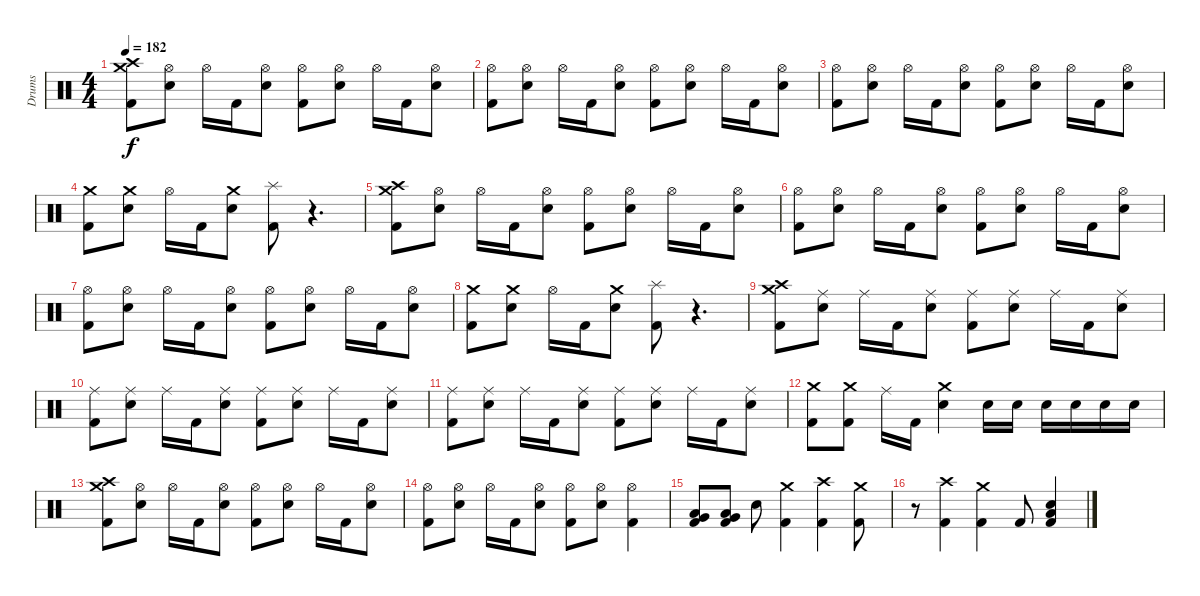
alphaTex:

\track ("Drums" "Drums") {instrument percussion}
\staff {score}
\articulation defaults
\ts (4 4)
\tempo 182
\clef neutral
\ks c
("Crash medium (hit)" "Crash high (hit)" "Kick (hit) 2").8{dy f} ("Hi-Hat (open)" "Electric Snare (hit)").8 "Hi-Hat (open)".16 "Kick (hit) 2".16 ("Hi-Hat (open)" "Electric Snare (hit)").8 ("Hi-Hat (open)" "Kick (hit) 2").8 ("Hi-Hat (open)" "Electric Snare (hit)").8 "Hi-Hat (open)".16 "Kick (hit) 2".16 ("Hi-Hat (open)" "Electric Snare (hit)").8 |
("Hi-Hat (open)" "Kick (hit) 2").8 ("Hi-Hat (open)" "Electric Snare (hit)").8 "Hi-Hat (open)".16 "Kick (hit) 2".16 ("Hi-Hat (open)" "Electric Snare (hit)").8 ("Hi-Hat (open)" "Kick (hit) 2").8 ("Hi-Hat (open)" "Electric Snare (hit)").8 "Hi-Hat (open)".16 "Kick (hit) 2".16 ("Hi-Hat (open)" "Electric Snare (hit)").8 |
("Hi-Hat (open)" "Kick (hit) 2").8 ("Hi-Hat (open)" "Electric Snare (hit)").8 "Hi-Hat (open)".16 "Kick (hit) 2".16 ("Hi-Hat (open)" "Electric Snare (hit)").8 ("Hi-Hat (open)" "Kick (hit) 2").8 ("Hi-Hat (open)" "Electric Snare (hit)").8 "Hi-Hat (open)".16 "Kick (hit) 2".16 ("Hi-Hat (open)" "Electric Snare (hit)").8 |
("Crash medium (hit)" "Kick (hit) 2").8 ("Crash medium (hit)" "Electric Snare (hit)").8 "Hi-Hat (open)".16 "Kick (hit) 2".16 ("Crash medium (hit)" "Electric Snare (hit)").8 ("Splash (hit)" "Kick (hit) 2").8 r.4{d volume 0} |
("Crash medium (hit)" "Crash high (hit)" "Kick (hit) 2").8{volume 16} ("Hi-Hat (open)" "Electric Snare (hit)").8 "Hi-Hat (open)".16 "Kick (hit) 2".16 ("Hi-Hat (open)" "Electric Snare (hit)").8 ("Hi-Hat (open)" "Kick (hit) 2").8 ("Hi-Hat (open)" "Electric Snare (hit)").8 "Hi-Hat (open)".16 "Kick (hit) 2".16 ("Hi-Hat (open)" "Electric Snare (hit)").8 |
("Hi-Hat (open)" "Kick (hit) 2").8 ("Hi-Hat (open)" "Electric Snare (hit)").8 "Hi-Hat (open)".16 "Kick (hit) 2".16 ("Hi-Hat (open)" "Electric Snare (hit)").8 ("Hi-Hat (open)" "Kick (hit) 2").8 ("Hi-Hat (open)" "Electric Snare (hit)").8 "Hi-Hat (open)".16 "Kick (hit) 2".16 ("Hi-Hat (open)" "Electric Snare (hit)").8 |
("Hi-Hat (open)" "Kick (hit) 2").8 ("Hi-Hat (open)" "Electric Snare (hit)").8 "Hi-Hat (open)".16 "Kick (hit) 2".16 ("Hi-Hat (open)" "Electric Snare (hit)").8 ("Hi-Hat (open)" "Kick (hit) 2").8 ("Hi-Hat (open)" "Electric Snare (hit)").8 "Hi-Hat (open)".16 "Kick (hit) 2".16 ("Hi-Hat (open)" "Electric Snare (hit)").8 |
("Crash medium (hit)" "Kick (hit) 2").8 ("Crash medium (hit)" "Electric Snare (hit)").8 "Hi-Hat (open)".16 "Kick (hit) 2".16 ("Crash medium (hit)" "Electric Snare (hit)").8 ("Splash (hit)" "Kick (hit) 2").8 r.4{d volume 0} |
("Crash medium (hit)" "Crash high (hit)" "Kick (hit) 2").8{volume 16} ("Ride (middle)" "Electric Snare (hit)").8 "Ride (middle)".16 "Kick (hit) 2".16 ("Ride (middle)" "Electric Snare (hit)").8 ("Ride (middle)" "Kick (hit) 2").8 ("Ride (middle)" "Electric Snare (hit)").8 "Ride (middle)".16 "Kick (hit) 2".16 ("Ride (middle)" "Electric Snare (hit)").8 |
("Ride (middle)" "Kick (hit) 2").8 ("Ride (middle)" "Electric Snare (hit)").8 "Ride (middle)".16 "Kick (hit) 2".16 ("Ride (middle)" "Electric Snare (hit)").8 ("Ride (middle)" "Kick (hit) 2").8 ("Ride (middle)" "Electric Snare (hit)").8 "Ride (middle)".16 "Kick (hit) 2".16 ("Ride (middle)" "Electric Snare (hit)").8 |
("Ride (middle)" "Kick (hit) 2").8 ("Ride (middle)" "Electric Snare (hit)").8 "Ride (middle)".16 "Kick (hit) 2".16 ("Ride (middle)" "Electric Snare (hit)").8 ("Ride (middle)" "Kick (hit) 2").8 ("Ride (middle)" "Electric Snare (hit)").8 "Ride (middle)".16 "Kick (hit) 2".16 ("Ride (middle)" "Electric Snare (hit)").8 |
("Crash medium (hit)" "Kick (hit) 2").8 ("Crash medium (hit)" "Kick (hit) 2").8 "Ride (middle)".16 "Kick (hit) 2".16 ("Crash medium (hit)" "Electric Snare (hit)").4 "Electric Snare (hit)".16 "Electric Snare (hit)".16 "Electric Snare (hit)".16 "Electric Snare (hit)".16 "Electric Snare (hit)".16 "Electric Snare (hit)".16 |
("Crash medium (hit)" "Crash high (hit)" "Kick (hit) 2").8 ("Hi-Hat (open)" "Electric Snare (hit)").8 "Hi-Hat (open)".16 "Kick (hit) 2".16 ("Hi-Hat (open)" "Electric Snare (hit)").8 ("Hi-Hat (open)" "Kick (hit) 2").8 ("Hi-Hat (open)" "Electric Snare (hit)").8 "Hi-Hat (open)".16 "Kick (hit) 2".16 ("Hi-Hat (open)" "Electric Snare (hit)").8 |
("Hi-Hat (open)" "Kick (hit) 2").8 ("Hi-Hat (open)" "Electric Snare (hit)").8 "Hi-Hat (open)".16 "Kick (hit) 2".16 ("Hi-Hat (open)" "Electric Snare (hit)").8 ("Hi-Hat (open)" "Kick (hit) 2").8 ("Hi-Hat (open)" "Electric Snare (hit)").8 ("Hi-Hat (open)" "Kick (hit) 2").4 |
("Low Floor Tom (hit)" "Very Low Tom (hit)" "Kick (hit) 2").8 ("Low Floor Tom (hit)" "Very Low Tom (hit)" "Kick (hit) 2").8 "Electric Snare (hit)".8 ("Crash medium (hit)" "Kick (hit) 2").4 ("Crash high (hit)" "Kick (hit) 2").4 ("Crash medium (hit)" "Kick (hit) 2").8 |
r.8 ("Crash high (hit)" "Kick (hit) 2").4 ("Crash medium (hit)" "Kick (hit) 2").4 "Kick (hit) 2".8 ("Low Floor Tom (hit)" "Electric Snare (hit)" "Kick (hit) 2").4
